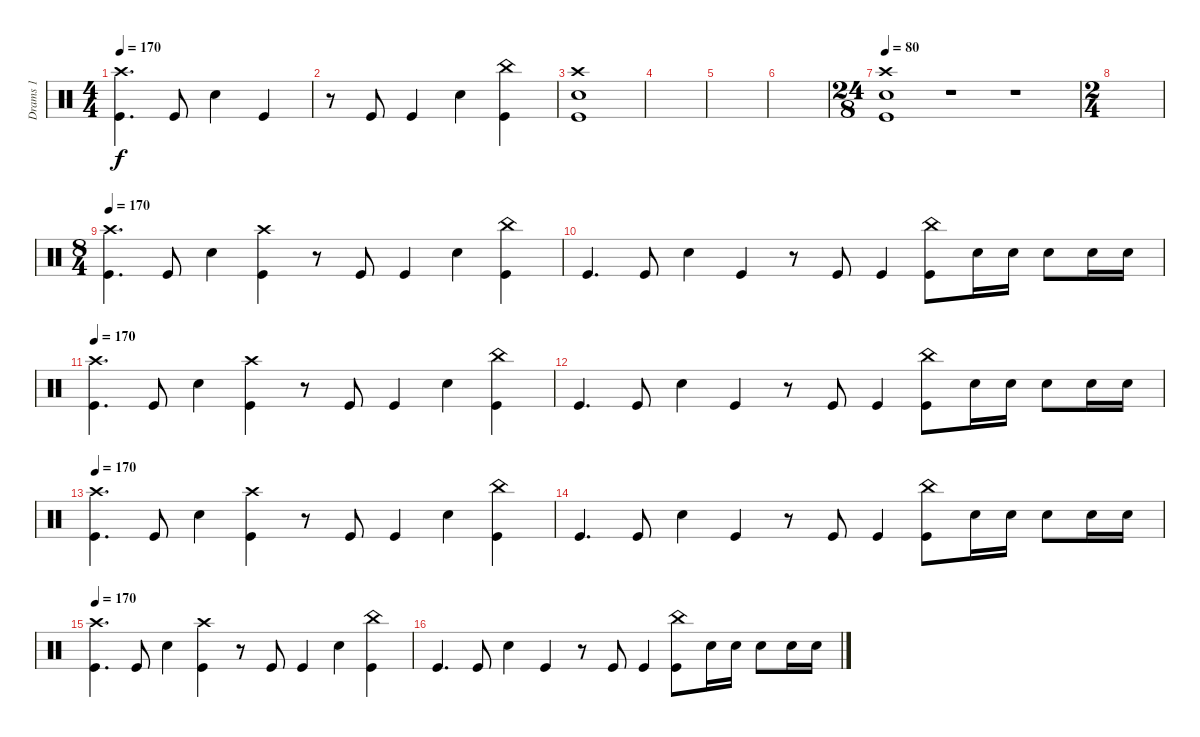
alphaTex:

\track ("Drams 1" "Drams 1") {instrument percussion}
\staff {score}
\articulation defaults
\ts (4 4)
\tempo 170
\clef neutral
\ks c
("Crash high (hit)" "Kick (hit)").4{d dy f} "Kick (hit)".8 "Snare (hit) 2".4 "Kick (hit)".4 |
r.8 "Kick (hit)".8 "Kick (hit)".4 "Snare (hit) 2".4 ("Kick (hit)" "China (hit)").4 |
("Kick (hit)" "Snare (hit) 2" "Crash high (hit)").1 |
|
|
|
\ts (24 8)
\tempo 80
("Kick (hit)" "Snare (hit) 2" "Crash high (hit)").1 r.1 r.1 |
\ts (2 4)
|
\ts (8 4)
\tempo 170
("Crash high (hit)" "Kick (hit)").4{d} "Kick (hit)".8 "Snare (hit) 2".4 ("Crash high (hit)" "Kick (hit)").4 r.8 "Kick (hit)".8 "Kick (hit)".4 "Snare (hit) 2".4 ("Kick (hit)" "China (hit)").4 |
"Kick (hit)".4{d} "Kick (hit)".8 "Snare (hit) 2".4 "Kick (hit)".4 r.8 "Kick (hit)".8 "Kick (hit)".4 ("Kick (hit)" "China (hit)").8 "Snare (hit) 2".16 "Snare (hit) 2".16 "Snare (hit) 2".8 "Snare (hit) 2".16 "Snare (hit) 2".16 |
\tempo 170
("Crash high (hit)" "Kick (hit)").4{d} "Kick (hit)".8 "Snare (hit) 2".4 ("Crash high (hit)" "Kick (hit)").4 r.8 "Kick (hit)".8 "Kick (hit)".4 "Snare (hit) 2".4 ("Kick (hit)" "China (hit)").4 |
"Kick (hit)".4{d} "Kick (hit)".8 "Snare (hit) 2".4 "Kick (hit)".4 r.8 "Kick (hit)".8 "Kick (hit)".4 ("Kick (hit)" "China (hit)").8 "Snare (hit) 2".16 "Snare (hit) 2".16 "Snare (hit) 2".8 "Snare (hit) 2".16 "Snare (hit) 2".16 |
\tempo 170
("Crash high (hit)" "Kick (hit)").4{d} "Kick (hit)".8 "Snare (hit) 2".4 ("Crash high (hit)" "Kick (hit)").4 r.8 "Kick (hit)".8 "Kick (hit)".4 "Snare (hit) 2".4 ("Kick (hit)" "China (hit)").4 |
"Kick (hit)".4{d} "Kick (hit)".8 "Snare (hit) 2".4 "Kick (hit)".4 r.8 "Kick (hit)".8 "Kick (hit)".4 ("Kick (hit)" "China (hit)").8 "Snare (hit) 2".16 "Snare (hit) 2".16 "Snare (hit) 2".8 "Snare (hit) 2".16 "Snare (hit) 2".16 |
\tempo 170
("Crash high (hit)" "Kick (hit)").4{d} "Kick (hit)".8 "Snare (hit) 2".4 ("Crash high (hit)" "Kick (hit)").4 r.8 "Kick (hit)".8 "Kick (hit)".4 "Snare (hit) 2".4 ("Kick (hit)" "China (hit)").4 |
"Kick (hit)".4{d} "Kick (hit)".8 "Snare (hit) 2".4 "Kick (hit)".4 r.8 "Kick (hit)".8 "Kick (hit)".4 ("Kick (hit)" "China (hit)").8 "Snare (hit) 2".16 "Snare (hit) 2".16 "Snare (hit) 2".8 "Snare (hit) 2".16 "Snare (hit) 2".16
